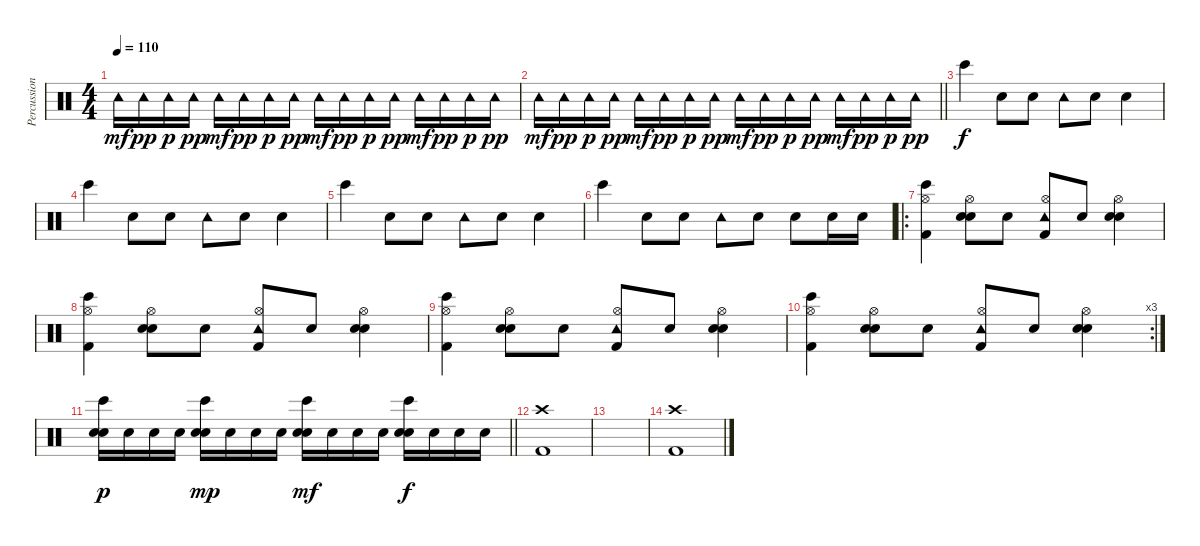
\track ("Percussions" "Percussion") {instrument percussion}
\staff {score}
\articulation defaults
\ts (4 4)
\tempo 110
\clef neutral
\ks c "Tambourine (hit)".16{dy mf} "Tambourine (hit)".16{dy pp} "Tambourine (hit)".16{dy p} "Tambourine (hit)".16{dy pp} "Tambourine (hit)".16{dy mf} "Tambourine (hit)".16{dy pp} "Tambourine (hit)".16{dy p} "Tambourine (hit)".16{dy pp} "Tambourine (hit)".16{dy mf} "Tambourine (hit)".16{dy pp} "Tambourine (hit)".16{dy p} "Tambourine (hit)".16{dy pp} "Tambourine (hit)".16{dy mf} "Tambourine (hit)".16{dy pp} "Tambourine (hit)".16{dy p} "Tambourine (hit)".16{dy pp}
|
\barLineRight lightlight "Tambourine (hit)".16{dy mf} "Tambourine (hit)".16{dy pp} "Tambourine (hit)".16{dy p} "Tambourine (hit)".16{dy pp} "Tambourine (hit)".16{dy mf} "Tambourine (hit)".16{dy pp} "Tambourine (hit)".16{dy p} "Tambourine (hit)".16{dy pp} "Tambourine (hit)".16{dy mf} "Tambourine (hit)".16{dy pp} "Tambourine (hit)".16{dy p} "Tambourine (hit)".16{dy pp} "Tambourine (hit)".16{dy mf} "Tambourine (hit)".16{dy pp} "Tambourine (hit)".16{dy p} "Tambourine (hit)".16{dy pp}
|
\section ("" "")
"Bongo High (hit)".4{dy f} "Hand Clap (hit)".8 "Hand Clap (hit)".8 "Tambourine (hit)".8 "Hand Clap (hit)".8 "Hand Clap (hit)".4 |
"Bongo High (hit)".4 "Hand Clap (hit)".8 "Hand Clap (hit)".8 "Tambourine (hit)".8 "Hand Clap (hit)".8 "Hand Clap (hit)".4 |
"Bongo High (hit)".4 "Hand Clap (hit)".8 "Hand Clap (hit)".8 "Tambourine (hit)".8 "Hand Clap (hit)".8 "Hand Clap (hit)".4 |
"Bongo High (hit)".4 "Hand Clap (hit)".8 "Hand Clap (hit)".8 "Tambourine (hit)".8 "Hand Clap (hit)".8 "Hand Clap (hit)".8 "Electric Snare (hit)".16 "Electric Snare (hit)".16 |
\ro
("Bongo High (hit)" "Hi-Hat (open)" "Kick (hit) 2").4 ("Hand Clap (hit)" "Hi-Hat (open)" "Electric Snare (hit)").8 "Hand Clap (hit)".8 ("Tambourine (hit)" "Hi-Hat (open)" "Kick (hit) 2").8 "Hand Clap (hit)".8 ("Hand Clap (hit)" "Hi-Hat (open)" "Electric Snare (hit)").4 |
("Bongo High (hit)" "Hi-Hat (open)" "Kick (hit) 2").4 ("Hand Clap (hit)" "Hi-Hat (open)" "Electric Snare (hit)").8 "Hand Clap (hit)".8 ("Tambourine (hit)" "Hi-Hat (open)" "Kick (hit) 2").8 "Hand Clap (hit)".8 ("Hand Clap (hit)" "Hi-Hat (open)" "Electric Snare (hit)").4 |
("Bongo High (hit)" "Hi-Hat (open)" "Kick (hit) 2").4 ("Hand Clap (hit)" "Hi-Hat (open)" "Electric Snare (hit)").8 "Hand Clap (hit)".8 ("Tambourine (hit)" "Hi-Hat (open)" "Kick (hit) 2").8 "Hand Clap (hit)".8 ("Hand Clap (hit)" "Hi-Hat (open)" "Electric Snare (hit)").4 |
\rc 3
("Bongo High (hit)" "Hi-Hat (open)" "Kick (hit) 2").4 ("Hand Clap (hit)" "Hi-Hat (open)" "Electric Snare (hit)").8 "Hand Clap (hit)".8 ("Tambourine (hit)" "Hi-Hat (open)" "Kick (hit) 2").8 "Hand Clap (hit)".8 ("Hand Clap (hit)" "Hi-Hat (open)" "Electric Snare (hit)").4 |
\barLineRight lightlight
("Hand Clap (hit)" "Bongo High (hit)" "Electric Snare (hit)").16{dy p} "Electric Snare (hit)".16 "Electric Snare (hit)".16 "Electric Snare (hit)".16 ("Bongo High (hit)" "Hand Clap (hit)" "Electric Snare (hit)").16{dy mp} "Electric Snare (hit)".16 "Electric Snare (hit)".16 "Electric Snare (hit)".16 ("Hand Clap (hit)" "Bongo High (hit)" "Electric Snare (hit)").16{dy mf} "Electric Snare (hit)".16 "Electric Snare (hit)".16 "Electric Snare (hit)".16 ("Bongo High (hit)" "Hand Clap (hit)" "Electric Snare (hit)").16{dy f} "Electric Snare (hit)".16 "Electric Snare (hit)".16 "Electric Snare (hit)".16 |
("Crash high (hit)" "Kick (hit) 2").1 |
|
("Crash high (hit)" "Kick (hit) 2").1
